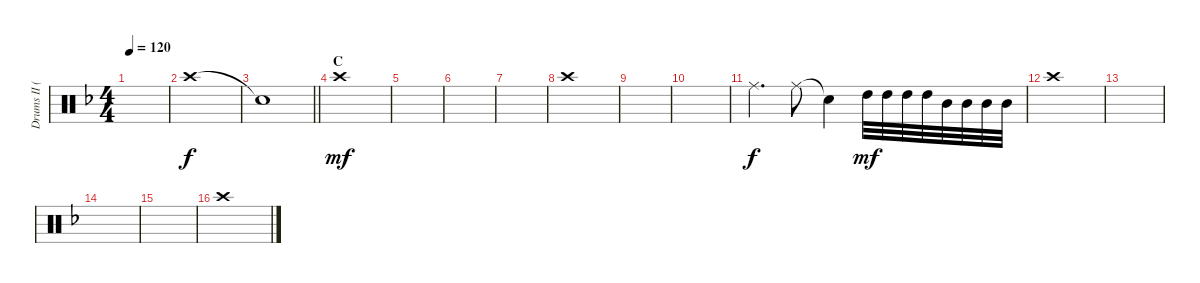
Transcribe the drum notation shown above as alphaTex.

\track ("Drums II (Tainaka Ritsu)" "Drums II (") {instrument percussion}
\staff {score}
\articulation defaults
\ts (4 4)
\tempo 120
\clef neutral
\ks f
|
"Crash high (hit)".1 |
\barLineRight lightlight "Snare (hit)"{t}.1{dy f}
|
\section ("" "C")
"Crash high (hit)".1{dy mf} |
|
|
|
"Crash high (hit)".1 |
|
|
"Ride (middle)".4{d dy f} "Ride (middle)".8 "Snare (hit)"{t}.4 "High Tom (hit)".32{dy mf} "High Tom (hit)".32 "High Tom (hit)".32 "High Tom (hit)".32 "Mid Tom (hit)".32 "Mid Tom (hit)".32 "Mid Tom (hit)".32 "Mid Tom (hit)".32 |
"Crash high (hit)".1 |
|
|
|
"Crash high (hit)".1
